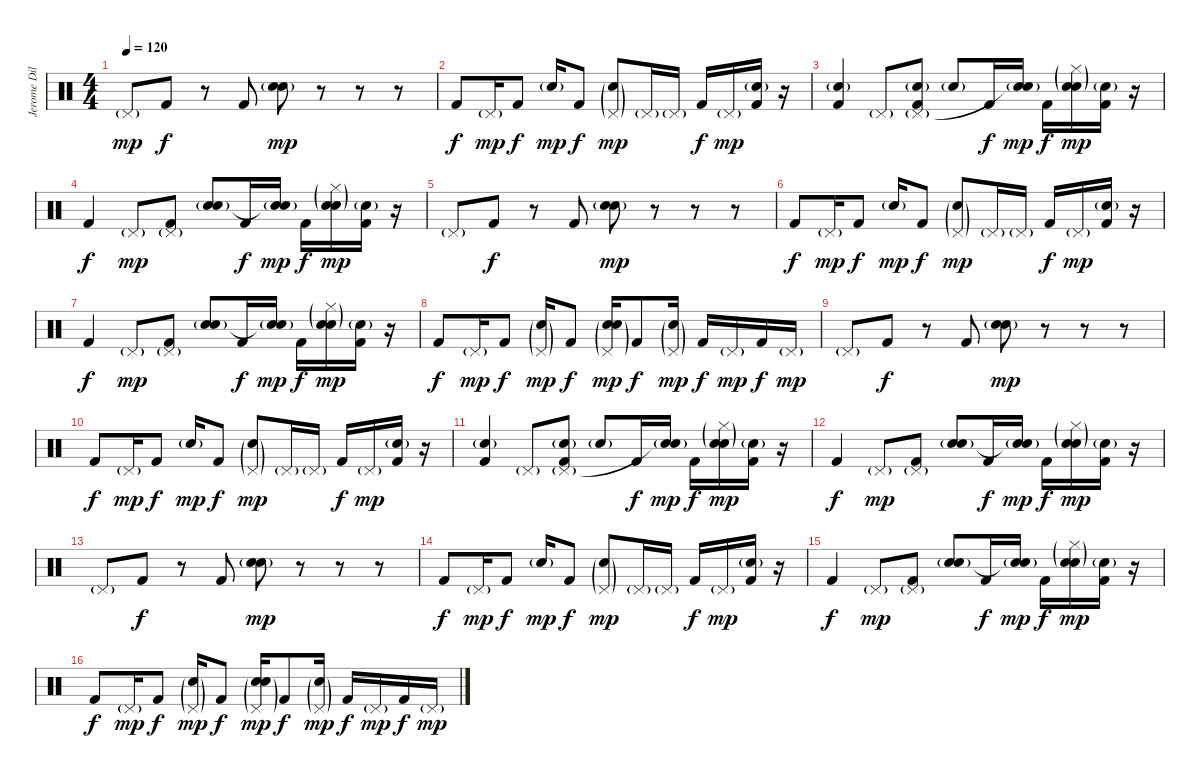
\track ("Jerome Dillon" "Jerome Dil") {instrument percussion}
\staff {score}
\articulation defaults
\ts (4 4)
\tempo 120
\clef neutral
\ks c "Pedal Hi-Hat (hit)"{g}.8{dy mp} "Kick (hit) 2".8{dy f}
r.8 "Kick (hit) 2".8 ("Electric Snare (hit)"{g} "Electric Snare (hit)"{g}).8{dy mp} r.8 r.8 r.8 |
"Kick (hit) 2".8{dy f} "Pedal Hi-Hat (hit)"{g}.16{dy mp} "Kick (hit) 2".8{dy f} "Electric Snare (hit)"{g}.16{dy mp} "Kick (hit) 2".8{dy f} ("Pedal Hi-Hat (hit)"{g} "Electric Snare (hit)"{g}).8{dy mp} "Pedal Hi-Hat (hit)"{g}.16 "Pedal Hi-Hat (hit)"{g}.16 "Kick (hit) 2".16{dy f} "Pedal Hi-Hat (hit)"{g}.16{dy mp} ("Electric Snare (hit)"{g} "Kick (hit) 2").16 r.16 |
("Snare (hit) 2"{g} "Kick (hit) 2").4 "Pedal Hi-Hat (hit)"{g}.8 ("Snare (hit) 2"{g} "Pedal Hi-Hat (hit)"{g} "Kick (hit) 2").8 "Electric Snare (hit)"{g}.8 "Kick (hit) 2".16{dy f} ("Snare (hit) 2"{g} "Snare (hit)"{t}).16{dy mp} "Kick (hit) 2".16{dy f} ("Hi-Hat (closed)"{g} "Electric Snare (hit)"{g} "Snare (hit) 2"{g}).16{dy mp} ("Electric Snare (hit)"{g} "Kick (hit) 2").16 r.16 |
"Kick (hit) 2".4{dy f} "Pedal Hi-Hat (hit)"{g}.8{dy mp} ("Pedal Hi-Hat (hit)"{g} "Kick (hit) 2").8 ("Snare (hit) 2"{g} "Electric Snare (hit)"{g}).8 "Kick (hit) 2".16{dy f} ("Snare (hit) 2"{g} "Snare (hit)"{t}).16{dy mp} "Kick (hit) 2".16{dy f} ("Hi-Hat (closed)"{g} "Electric Snare (hit)"{g} "Snare (hit) 2"{g}).16{dy mp} ("Electric Snare (hit)"{g} "Kick (hit) 2").16 r.16 |
"Pedal Hi-Hat (hit)"{g}.8 "Kick (hit) 2".8{dy f} r.8 "Kick (hit) 2".8 ("Electric Snare (hit)"{g} "Electric Snare (hit)"{g}).8{dy mp} r.8 r.8 r.8 |
"Kick (hit) 2".8{dy f} "Pedal Hi-Hat (hit)"{g}.16{dy mp} "Kick (hit) 2".8{dy f} "Electric Snare (hit)"{g}.16{dy mp} "Kick (hit) 2".8{dy f} ("Pedal Hi-Hat (hit)"{g} "Electric Snare (hit)"{g}).8{dy mp} "Pedal Hi-Hat (hit)"{g}.16 "Pedal Hi-Hat (hit)"{g}.16 "Kick (hit) 2".16{dy f} "Pedal Hi-Hat (hit)"{g}.16{dy mp} ("Electric Snare (hit)"{g} "Kick (hit) 2").16 r.16 |
"Kick (hit) 2".4{dy f} "Pedal Hi-Hat (hit)"{g}.8{dy mp} ("Pedal Hi-Hat (hit)"{g} "Kick (hit) 2").8 ("Snare (hit) 2"{g} "Electric Snare (hit)"{g}).8 "Kick (hit) 2".16{dy f} ("Snare (hit) 2"{g} "Snare (hit)"{t}).16{dy mp} "Kick (hit) 2".16{dy f} ("Hi-Hat (closed)"{g} "Electric Snare (hit)"{g} "Snare (hit) 2"{g}).16{dy mp} ("Electric Snare (hit)"{g} "Kick (hit) 2").16 r.16 |
"Kick (hit) 2".8{dy f} "Pedal Hi-Hat (hit)"{g}.16{dy mp} "Kick (hit) 2".8{dy f} ("Electric Snare (hit)"{g} "Pedal Hi-Hat (hit)"{g}).16{dy mp} "Kick (hit) 2".8{dy f} ("Electric Snare (hit)"{g} "Snare (hit) 2"{g} "Pedal Hi-Hat (hit)"{g}).16{dy mp} "Kick (hit) 2".8{dy f} ("Snare (hit) 2"{g} "Pedal Hi-Hat (hit)"{g}).16{dy mp} "Kick (hit) 2".16{dy f} "Pedal Hi-Hat (hit)"{g}.16{dy mp} "Kick (hit) 2".16{dy f} "Pedal Hi-Hat (hit)"{g}.16{dy mp} |
"Pedal Hi-Hat (hit)"{g}.8 "Kick (hit) 2".8{dy f} r.8 "Kick (hit) 2".8 ("Electric Snare (hit)"{g} "Electric Snare (hit)"{g}).8{dy mp} r.8 r.8 r.8 |
"Kick (hit) 2".8{dy f} "Pedal Hi-Hat (hit)"{g}.16{dy mp} "Kick (hit) 2".8{dy f} "Electric Snare (hit)"{g}.16{dy mp} "Kick (hit) 2".8{dy f} ("Pedal Hi-Hat (hit)"{g} "Electric Snare (hit)"{g}).8{dy mp} "Pedal Hi-Hat (hit)"{g}.16 "Pedal Hi-Hat (hit)"{g}.16 "Kick (hit) 2".16{dy f} "Pedal Hi-Hat (hit)"{g}.16{dy mp} ("Electric Snare (hit)"{g} "Kick (hit) 2").16 r.16 |
("Snare (hit) 2"{g} "Kick (hit) 2").4 "Pedal Hi-Hat (hit)"{g}.8 ("Snare (hit) 2"{g} "Pedal Hi-Hat (hit)"{g} "Kick (hit) 2").8 "Electric Snare (hit)"{g}.8 "Kick (hit) 2".16{dy f} ("Snare (hit) 2"{g} "Snare (hit)"{t}).16{dy mp} "Kick (hit) 2".16{dy f} ("Hi-Hat (closed)"{g} "Electric Snare (hit)"{g} "Snare (hit) 2"{g}).16{dy mp} ("Electric Snare (hit)"{g} "Kick (hit) 2").16 r.16 |
"Kick (hit) 2".4{dy f} "Pedal Hi-Hat (hit)"{g}.8{dy mp} ("Pedal Hi-Hat (hit)"{g} "Kick (hit) 2").8 ("Snare (hit) 2"{g} "Electric Snare (hit)"{g}).8 "Kick (hit) 2".16{dy f} ("Snare (hit) 2"{g} "Snare (hit)"{t}).16{dy mp} "Kick (hit) 2".16{dy f} ("Hi-Hat (closed)"{g} "Electric Snare (hit)"{g} "Snare (hit) 2"{g}).16{dy mp} ("Electric Snare (hit)"{g} "Kick (hit) 2").16 r.16 |
"Pedal Hi-Hat (hit)"{g}.8 "Kick (hit) 2".8{dy f} r.8 "Kick (hit) 2".8 ("Electric Snare (hit)"{g} "Electric Snare (hit)"{g}).8{dy mp} r.8 r.8 r.8 |
"Kick (hit) 2".8{dy f} "Pedal Hi-Hat (hit)"{g}.16{dy mp} "Kick (hit) 2".8{dy f} "Electric Snare (hit)"{g}.16{dy mp} "Kick (hit) 2".8{dy f} ("Pedal Hi-Hat (hit)"{g} "Electric Snare (hit)"{g}).8{dy mp} "Pedal Hi-Hat (hit)"{g}.16 "Pedal Hi-Hat (hit)"{g}.16 "Kick (hit) 2".16{dy f} "Pedal Hi-Hat (hit)"{g}.16{dy mp} ("Electric Snare (hit)"{g} "Kick (hit) 2").16 r.16 |
"Kick (hit) 2".4{dy f} "Pedal Hi-Hat (hit)"{g}.8{dy mp} ("Pedal Hi-Hat (hit)"{g} "Kick (hit) 2").8 ("Snare (hit) 2"{g} "Electric Snare (hit)"{g}).8 "Kick (hit) 2".16{dy f} ("Snare (hit) 2"{g} "Snare (hit)"{t}).16{dy mp} "Kick (hit) 2".16{dy f} ("Hi-Hat (closed)"{g} "Electric Snare (hit)"{g} "Snare (hit) 2"{g}).16{dy mp} ("Electric Snare (hit)"{g} "Kick (hit) 2").16 r.16 |
"Kick (hit) 2".8{dy f} "Pedal Hi-Hat (hit)"{g}.16{dy mp} "Kick (hit) 2".8{dy f} ("Electric Snare (hit)"{g} "Pedal Hi-Hat (hit)"{g}).16{dy mp} "Kick (hit) 2".8{dy f} ("Electric Snare (hit)"{g} "Snare (hit) 2"{g} "Pedal Hi-Hat (hit)"{g}).16{dy mp} "Kick (hit) 2".8{dy f} ("Snare (hit) 2"{g} "Pedal Hi-Hat (hit)"{g}).16{dy mp} "Kick (hit) 2".16{dy f} "Pedal Hi-Hat (hit)"{g}.16{dy mp} "Kick (hit) 2".16{dy f} "Pedal Hi-Hat (hit)"{g}.16{dy mp}
